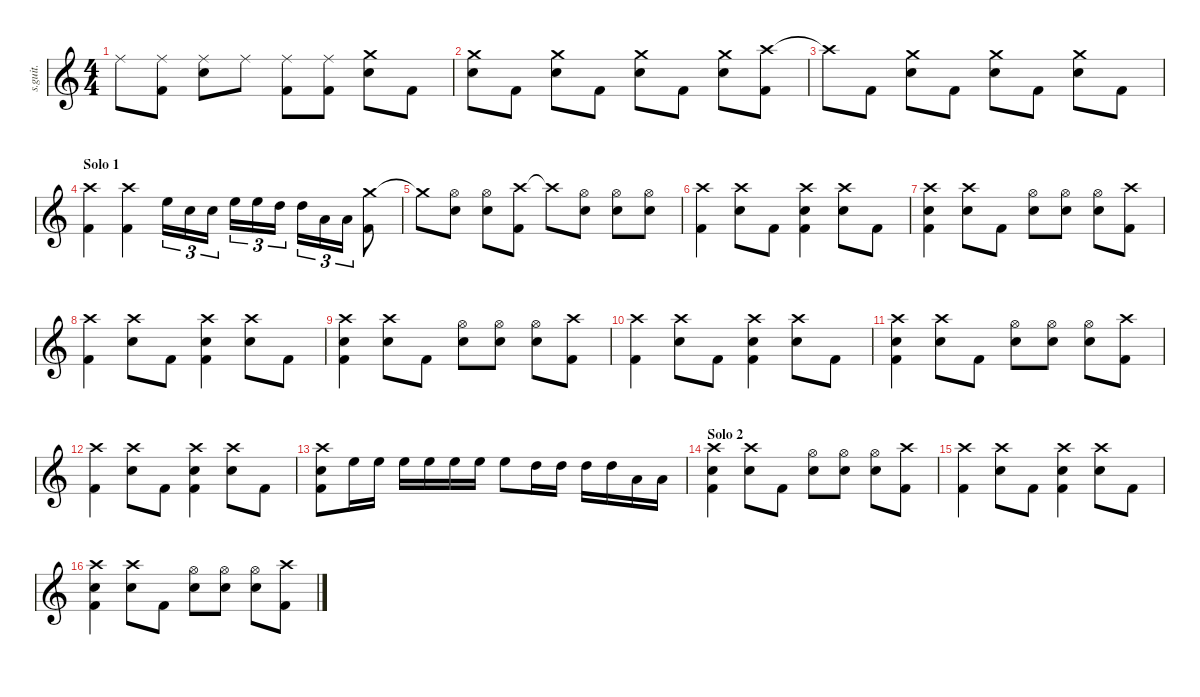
\defaultSystemsLayout 4
\hideDynamics
\bracketExtendMode nobrackets
\track ("Earth" "s.guit.") {instrument percussion}
\staff {score}
\articulation defaults
\ts (4 4)
\tempo (130 hide)
\clef g2
\ks c "Ride (middle)".8{lyrics (0 "") lyrics (1 "") lyrics (2 "") lyrics (3 "") lyrics (4 "") dy f}
("Ride (middle)" "Kick (hit) 2").8{lyrics (0 "") lyrics (1 "") lyrics (2 "") lyrics (3 "") lyrics (4 "")} ("Ride (middle)" "Snare (hit) 2").8{lyrics (0 "") lyrics (1 "") lyrics (2 "") lyrics (3 "") lyrics (4 "")} "Ride (middle)".8{lyrics (0 "") lyrics (1 "") lyrics (2 "") lyrics (3 "") lyrics (4 "")} ("Ride (middle)" "Kick (hit) 2").8{lyrics (0 "") lyrics (1 "") lyrics (2 "") lyrics (3 "") lyrics (4 "")} ("Ride (middle)" "Kick (hit) 2").8{lyrics (0 "") lyrics (1 "") lyrics (2 "") lyrics (3 "") lyrics (4 "")} ("Crash medium (hit)" "Snare (hit) 2").8{lyrics (0 "") lyrics (1 "") lyrics (2 "") lyrics (3 "") lyrics (4 "")} "Kick (hit) 2".8{lyrics (0 "") lyrics (1 "") lyrics (2 "") lyrics (3 "") lyrics (4 "")} |
("Crash medium (hit)" "Snare (hit) 2").8{lyrics (0 "") lyrics (1 "") lyrics (2 "") lyrics (3 "") lyrics (4 "")} "Kick (hit) 2".8{lyrics (0 "") lyrics (1 "") lyrics (2 "") lyrics (3 "") lyrics (4 "")} ("Crash medium (hit)" "Snare (hit) 2").8{lyrics (0 "") lyrics (1 "") lyrics (2 "") lyrics (3 "") lyrics (4 "")} "Kick (hit) 2".8{lyrics (0 "") lyrics (1 "") lyrics (2 "") lyrics (3 "") lyrics (4 "")} ("Crash medium (hit)" "Snare (hit) 2").8{lyrics (0 "") lyrics (1 "") lyrics (2 "") lyrics (3 "") lyrics (4 "")} "Kick (hit) 2".8{lyrics (0 "") lyrics (1 "") lyrics (2 "") lyrics (3 "") lyrics (4 "")} ("Crash medium (hit)" "Snare (hit) 2").8{lyrics (0 "") lyrics (1 "") lyrics (2 "") lyrics (3 "") lyrics (4 "")} ("Crash high (hit)" "Kick (hit) 2").8{lyrics (0 "") lyrics (1 "") lyrics (2 "") lyrics (3 "") lyrics (4 "")} |
"Crash high (hit)"{t}.8{lyrics (0 "") lyrics (1 "") lyrics (2 "") lyrics (3 "") lyrics (4 "")} "Kick (hit) 2".8{lyrics (0 "") lyrics (1 "") lyrics (2 "") lyrics (3 "") lyrics (4 "")} ("Crash medium (hit)" "Snare (hit) 2").8{lyrics (0 "") lyrics (1 "") lyrics (2 "") lyrics (3 "") lyrics (4 "")} "Kick (hit) 2".8{lyrics (0 "") lyrics (1 "") lyrics (2 "") lyrics (3 "") lyrics (4 "")} ("Crash medium (hit)" "Snare (hit) 2").8{lyrics (0 "") lyrics (1 "") lyrics (2 "") lyrics (3 "") lyrics (4 "")} "Kick (hit) 2".8{lyrics (0 "") lyrics (1 "") lyrics (2 "") lyrics (3 "") lyrics (4 "")} ("Crash medium (hit)" "Snare (hit) 2").8{lyrics (0 "") lyrics (1 "") lyrics (2 "") lyrics (3 "") lyrics (4 "")} "Kick (hit) 2".8{lyrics (0 "") lyrics (1 "") lyrics (2 "") lyrics (3 "") lyrics (4 "")} |
\section ("" "Solo 1")
("Crash high (hit)" "Kick (hit) 2").4{lyrics (0 "") lyrics (1 "") lyrics (2 "") lyrics (3 "") lyrics (4 "")} ("Crash high (hit)" "Kick (hit) 2").4{lyrics (0 "") lyrics (1 "") lyrics (2 "") lyrics (3 "") lyrics (4 "")} "High Floor Tom (hit)".16{tu (3 2) lyrics (0 "") lyrics (1 "") lyrics (2 "") lyrics (3 "") lyrics (4 "")} "Snare (hit) 2".16{tu (3 2) lyrics (0 "") lyrics (1 "") lyrics (2 "") lyrics (3 "") lyrics (4 "")} "Snare (hit) 2".16{tu (3 2) lyrics (0 "") lyrics (1 "") lyrics (2 "") lyrics (3 "") lyrics (4 "")} "High Floor Tom (hit)".16{tu (3 2) lyrics (0 "") lyrics (1 "") lyrics (2 "") lyrics (3 "") lyrics (4 "")} "High Floor Tom (hit)".16{tu (3 2) lyrics (0 "") lyrics (1 "") lyrics (2 "") lyrics (3 "") lyrics (4 "")} "High Tom (hit)".16{tu (3 2) lyrics (0 "") lyrics (1 "") lyrics (2 "") lyrics (3 "") lyrics (4 "")} "High Tom (hit)".16{tu (3 2) lyrics (0 "") lyrics (1 "") lyrics (2 "") lyrics (3 "") lyrics (4 "")} "Low Tom (hit)".16{tu (3 2) lyrics (0 "") lyrics (1 "") lyrics (2 "") lyrics (3 "") lyrics (4 "")} "Low Tom (hit)".16{tu (3 2) lyrics (0 "") lyrics (1 "") lyrics (2 "") lyrics (3 "") lyrics (4 "")} ("Crash medium (hit)" "Kick (hit) 2").8{lyrics (0 "") lyrics (1 "") lyrics (2 "") lyrics (3 "") lyrics (4 "")} |
"Crash medium (hit)"{t}.8{lyrics (0 "") lyrics (1 "") lyrics (2 "") lyrics (3 "") lyrics (4 "")} ("Hi-Hat (open)" "Snare (hit) 2").8{lyrics (0 "") lyrics (1 "") lyrics (2 "") lyrics (3 "") lyrics (4 "")} ("Hi-Hat (open)" "Snare (hit) 2").8{lyrics (0 "") lyrics (1 "") lyrics (2 "") lyrics (3 "") lyrics (4 "")} ("Crash high (hit)" "Kick (hit) 2").8{lyrics (0 "") lyrics (1 "") lyrics (2 "") lyrics (3 "") lyrics (4 "")} "Crash high (hit)"{t}.8{lyrics (0 "") lyrics (1 "") lyrics (2 "") lyrics (3 "") lyrics (4 "")} ("Hi-Hat (open)" "Snare (hit) 2").8{lyrics (0 "") lyrics (1 "") lyrics (2 "") lyrics (3 "") lyrics (4 "")} ("Hi-Hat (open)" "Snare (hit) 2").8{lyrics (0 "") lyrics (1 "") lyrics (2 "") lyrics (3 "") lyrics (4 "")} ("Hi-Hat (open)" "Snare (hit) 2").8{lyrics (0 "") lyrics (1 "") lyrics (2 "") lyrics (3 "") lyrics (4 "")} |
("Crash high (hit)" "Kick (hit) 2").4{lyrics (0 "") lyrics (1 "") lyrics (2 "") lyrics (3 "") lyrics (4 "")} ("Crash high (hit)" "Snare (hit) 2").8{lyrics (0 "") lyrics (1 "") lyrics (2 "") lyrics (3 "") lyrics (4 "")} "Kick (hit) 2".8{lyrics (0 "") lyrics (1 "") lyrics (2 "") lyrics (3 "") lyrics (4 "")} ("Crash high (hit)" "Snare (hit) 2" "Kick (hit) 2").4{lyrics (0 "") lyrics (1 "") lyrics (2 "") lyrics (3 "") lyrics (4 "")} ("Crash high (hit)" "Snare (hit) 2").8{lyrics (0 "") lyrics (1 "") lyrics (2 "") lyrics (3 "") lyrics (4 "")} "Kick (hit) 2".8{lyrics (0 "") lyrics (1 "") lyrics (2 "") lyrics (3 "") lyrics (4 "")} |
("Crash high (hit)" "Snare (hit) 2" "Kick (hit) 2").4{lyrics (0 "") lyrics (1 "") lyrics (2 "") lyrics (3 "") lyrics (4 "")} ("Crash high (hit)" "Snare (hit) 2").8{lyrics (0 "") lyrics (1 "") lyrics (2 "") lyrics (3 "") lyrics (4 "")} "Kick (hit) 2".8{lyrics (0 "") lyrics (1 "") lyrics (2 "") lyrics (3 "") lyrics (4 "")} ("Hi-Hat (open)" "Snare (hit) 2").8{lyrics (0 "") lyrics (1 "") lyrics (2 "") lyrics (3 "") lyrics (4 "")} ("Hi-Hat (open)" "Snare (hit) 2").8{lyrics (0 "") lyrics (1 "") lyrics (2 "") lyrics (3 "") lyrics (4 "")} ("Hi-Hat (open)" "Snare (hit) 2").8{lyrics (0 "") lyrics (1 "") lyrics (2 "") lyrics (3 "") lyrics (4 "")} ("Crash high (hit)" "Kick (hit) 2").8{lyrics (0 "") lyrics (1 "") lyrics (2 "") lyrics (3 "") lyrics (4 "")} |
("Crash high (hit)" "Kick (hit) 2").4{lyrics (0 "") lyrics (1 "") lyrics (2 "") lyrics (3 "") lyrics (4 "")} ("Crash high (hit)" "Snare (hit) 2").8{lyrics (0 "") lyrics (1 "") lyrics (2 "") lyrics (3 "") lyrics (4 "")} "Kick (hit) 2".8{lyrics (0 "") lyrics (1 "") lyrics (2 "") lyrics (3 "") lyrics (4 "")} ("Crash high (hit)" "Snare (hit) 2" "Kick (hit) 2").4{lyrics (0 "") lyrics (1 "") lyrics (2 "") lyrics (3 "") lyrics (4 "")} ("Crash high (hit)" "Snare (hit) 2").8{lyrics (0 "") lyrics (1 "") lyrics (2 "") lyrics (3 "") lyrics (4 "")} "Kick (hit) 2".8{lyrics (0 "") lyrics (1 "") lyrics (2 "") lyrics (3 "") lyrics (4 "")} |
("Crash high (hit)" "Snare (hit) 2" "Kick (hit) 2").4{lyrics (0 "") lyrics (1 "") lyrics (2 "") lyrics (3 "") lyrics (4 "")} ("Crash high (hit)" "Snare (hit) 2").8{lyrics (0 "") lyrics (1 "") lyrics (2 "") lyrics (3 "") lyrics (4 "")} "Kick (hit) 2".8{lyrics (0 "") lyrics (1 "") lyrics (2 "") lyrics (3 "") lyrics (4 "")} ("Hi-Hat (open)" "Snare (hit) 2").8{lyrics (0 "") lyrics (1 "") lyrics (2 "") lyrics (3 "") lyrics (4 "")} ("Hi-Hat (open)" "Snare (hit) 2").8{lyrics (0 "") lyrics (1 "") lyrics (2 "") lyrics (3 "") lyrics (4 "")} ("Hi-Hat (open)" "Snare (hit) 2").8{lyrics (0 "") lyrics (1 "") lyrics (2 "") lyrics (3 "") lyrics (4 "")} ("Crash high (hit)" "Kick (hit) 2").8{lyrics (0 "") lyrics (1 "") lyrics (2 "") lyrics (3 "") lyrics (4 "")} |
("Crash high (hit)" "Kick (hit) 2").4{lyrics (0 "") lyrics (1 "") lyrics (2 "") lyrics (3 "") lyrics (4 "")} ("Crash high (hit)" "Snare (hit) 2").8{lyrics (0 "") lyrics (1 "") lyrics (2 "") lyrics (3 "") lyrics (4 "")} "Kick (hit) 2".8{lyrics (0 "") lyrics (1 "") lyrics (2 "") lyrics (3 "") lyrics (4 "")} ("Crash high (hit)" "Snare (hit) 2" "Kick (hit) 2").4{lyrics (0 "") lyrics (1 "") lyrics (2 "") lyrics (3 "") lyrics (4 "")} ("Crash high (hit)" "Snare (hit) 2").8{lyrics (0 "") lyrics (1 "") lyrics (2 "") lyrics (3 "") lyrics (4 "")} "Kick (hit) 2".8{lyrics (0 "") lyrics (1 "") lyrics (2 "") lyrics (3 "") lyrics (4 "")} |
("Crash high (hit)" "Snare (hit) 2" "Kick (hit) 2").4{lyrics (0 "") lyrics (1 "") lyrics (2 "") lyrics (3 "") lyrics (4 "")} ("Crash high (hit)" "Snare (hit) 2").8{lyrics (0 "") lyrics (1 "") lyrics (2 "") lyrics (3 "") lyrics (4 "")} "Kick (hit) 2".8{lyrics (0 "") lyrics (1 "") lyrics (2 "") lyrics (3 "") lyrics (4 "")} ("Hi-Hat (open)" "Snare (hit) 2").8{lyrics (0 "") lyrics (1 "") lyrics (2 "") lyrics (3 "") lyrics (4 "")} ("Hi-Hat (open)" "Snare (hit) 2").8{lyrics (0 "") lyrics (1 "") lyrics (2 "") lyrics (3 "") lyrics (4 "")} ("Hi-Hat (open)" "Snare (hit) 2").8{lyrics (0 "") lyrics (1 "") lyrics (2 "") lyrics (3 "") lyrics (4 "")} ("Crash high (hit)" "Kick (hit) 2").8{lyrics (0 "") lyrics (1 "") lyrics (2 "") lyrics (3 "") lyrics (4 "")} |
("Crash high (hit)" "Kick (hit) 2").4{lyrics (0 "") lyrics (1 "") lyrics (2 "") lyrics (3 "") lyrics (4 "")} ("Crash high (hit)" "Snare (hit) 2").8{lyrics (0 "") lyrics (1 "") lyrics (2 "") lyrics (3 "") lyrics (4 "")} "Kick (hit) 2".8{lyrics (0 "") lyrics (1 "") lyrics (2 "") lyrics (3 "") lyrics (4 "")} ("Crash high (hit)" "Snare (hit) 2" "Kick (hit) 2").4{lyrics (0 "") lyrics (1 "") lyrics (2 "") lyrics (3 "") lyrics (4 "")} ("Crash high (hit)" "Snare (hit) 2").8{lyrics (0 "") lyrics (1 "") lyrics (2 "") lyrics (3 "") lyrics (4 "")} "Kick (hit) 2".8{lyrics (0 "") lyrics (1 "") lyrics (2 "") lyrics (3 "") lyrics (4 "")} |
("Crash high (hit)" "Snare (hit) 2" "Kick (hit) 2").8{lyrics (0 "") lyrics (1 "") lyrics (2 "") lyrics (3 "") lyrics (4 "")} "High Floor Tom (hit)".16{lyrics (0 "") lyrics (1 "") lyrics (2 "") lyrics (3 "") lyrics (4 "")} "High Floor Tom (hit)".16{lyrics (0 "") lyrics (1 "") lyrics (2 "") lyrics (3 "") lyrics (4 "")} "High Floor Tom (hit)".16{lyrics (0 "") lyrics (1 "") lyrics (2 "") lyrics (3 "") lyrics (4 "")} "High Floor Tom (hit)".16{lyrics (0 "") lyrics (1 "") lyrics (2 "") lyrics (3 "") lyrics (4 "")} "High Floor Tom (hit)".16{lyrics (0 "") lyrics (1 "") lyrics (2 "") lyrics (3 "") lyrics (4 "")} "High Floor Tom (hit)".16{lyrics (0 "") lyrics (1 "") lyrics (2 "") lyrics (3 "") lyrics (4 "")} "High Floor Tom (hit)".8{lyrics (0 "") lyrics (1 "") lyrics (2 "") lyrics (3 "") lyrics (4 "")} "High Tom (hit)".16{lyrics (0 "") lyrics (1 "") lyrics (2 "") lyrics (3 "") lyrics (4 "")} "High Tom (hit)".16{lyrics (0 "") lyrics (1 "") lyrics (2 "") lyrics (3 "") lyrics (4 "")} "High Tom (hit)".16{lyrics (0 "") lyrics (1 "") lyrics (2 "") lyrics (3 "") lyrics (4 "")} "High Tom (hit)".16{lyrics (0 "") lyrics (1 "") lyrics (2 "") lyrics (3 "") lyrics (4 "")} "Low Tom (hit)".16{lyrics (0 "") lyrics (1 "") lyrics (2 "") lyrics (3 "") lyrics (4 "")} "Low Tom (hit)".16{lyrics (0 "") lyrics (1 "") lyrics (2 "") lyrics (3 "") lyrics (4 "")} |
\section ("" "Solo 2")
("Crash high (hit)" "Snare (hit) 2" "Kick (hit) 2").4{lyrics (0 "") lyrics (1 "") lyrics (2 "") lyrics (3 "") lyrics (4 "")} ("Crash high (hit)" "Snare (hit) 2").8{lyrics (0 "") lyrics (1 "") lyrics (2 "") lyrics (3 "") lyrics (4 "")} "Kick (hit) 2".8{lyrics (0 "") lyrics (1 "") lyrics (2 "") lyrics (3 "") lyrics (4 "")} ("Hi-Hat (open)" "Snare (hit) 2").8{lyrics (0 "") lyrics (1 "") lyrics (2 "") lyrics (3 "") lyrics (4 "")} ("Hi-Hat (open)" "Snare (hit) 2").8{lyrics (0 "") lyrics (1 "") lyrics (2 "") lyrics (3 "") lyrics (4 "")} ("Hi-Hat (open)" "Snare (hit) 2").8{lyrics (0 "") lyrics (1 "") lyrics (2 "") lyrics (3 "") lyrics (4 "")} ("Crash high (hit)" "Kick (hit) 2").8{lyrics (0 "") lyrics (1 "") lyrics (2 "") lyrics (3 "") lyrics (4 "")} |
("Crash high (hit)" "Kick (hit) 2").4{lyrics (0 "") lyrics (1 "") lyrics (2 "") lyrics (3 "") lyrics (4 "")} ("Crash high (hit)" "Snare (hit) 2").8{lyrics (0 "") lyrics (1 "") lyrics (2 "") lyrics (3 "") lyrics (4 "")} "Kick (hit) 2".8{lyrics (0 "") lyrics (1 "") lyrics (2 "") lyrics (3 "") lyrics (4 "")} ("Crash high (hit)" "Snare (hit) 2" "Kick (hit) 2").4{lyrics (0 "") lyrics (1 "") lyrics (2 "") lyrics (3 "") lyrics (4 "")} ("Crash high (hit)" "Snare (hit) 2").8{lyrics (0 "") lyrics (1 "") lyrics (2 "") lyrics (3 "") lyrics (4 "")} "Kick (hit) 2".8{lyrics (0 "") lyrics (1 "") lyrics (2 "") lyrics (3 "") lyrics (4 "")} |
("Crash high (hit)" "Snare (hit) 2" "Kick (hit) 2").4{lyrics (0 "") lyrics (1 "") lyrics (2 "") lyrics (3 "") lyrics (4 "")} ("Crash high (hit)" "Snare (hit) 2").8{lyrics (0 "") lyrics (1 "") lyrics (2 "") lyrics (3 "") lyrics (4 "")} "Kick (hit) 2".8{lyrics (0 "") lyrics (1 "") lyrics (2 "") lyrics (3 "") lyrics (4 "")} ("Hi-Hat (open)" "Snare (hit) 2").8{lyrics (0 "") lyrics (1 "") lyrics (2 "") lyrics (3 "") lyrics (4 "")} ("Hi-Hat (open)" "Snare (hit) 2").8{lyrics (0 "") lyrics (1 "") lyrics (2 "") lyrics (3 "") lyrics (4 "")} ("Hi-Hat (open)" "Snare (hit) 2").8{lyrics (0 "") lyrics (1 "") lyrics (2 "") lyrics (3 "") lyrics (4 "")} ("Crash high (hit)" "Kick (hit) 2").8{lyrics (0 "") lyrics (1 "") lyrics (2 "") lyrics (3 "") lyrics (4 "")}
